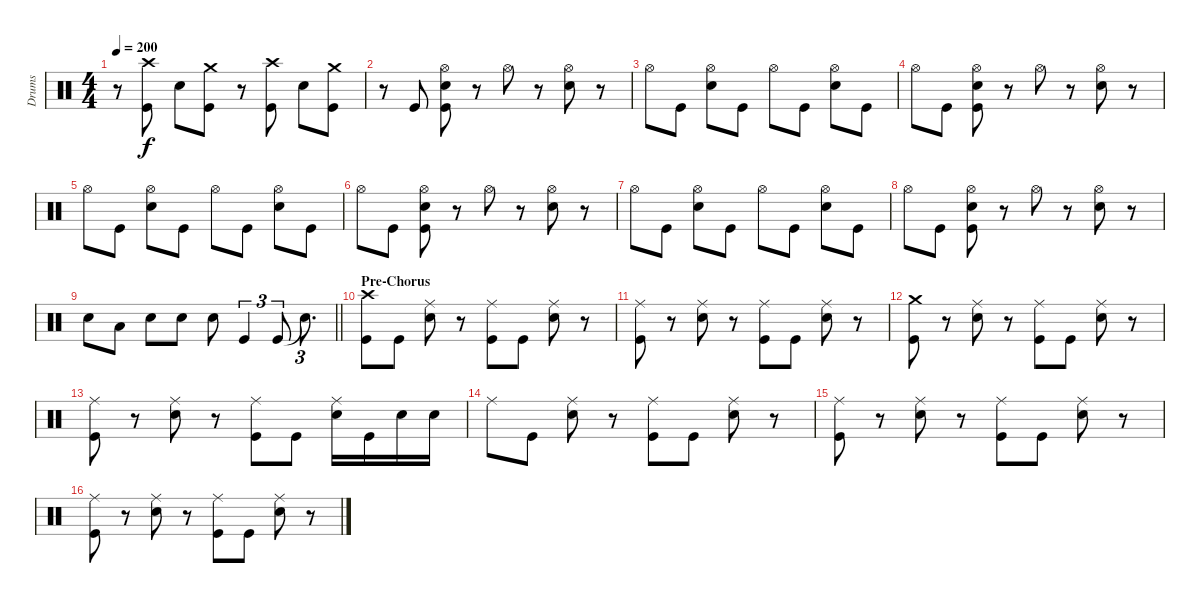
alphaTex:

\track ("Drums" "Drums") {instrument percussion}
\staff {score}
\articulation defaults
\ts (4 4)
\tempo 200
\clef neutral
\ks c
r.8{dy f} ("Crash high (hit)" "Kick (hit)").8 "Electric Snare (hit)".8 ("Crash medium (hit)" "Kick (hit)").8 r.8 ("Crash high (hit)" "Kick (hit)").8 "Electric Snare (hit)".8 ("Crash medium (hit)" "Kick (hit)").8 |
r.8 "Kick (hit)".8 ("Hi-Hat (open)" "Electric Snare (hit)" "Kick (hit)").8 r.8 "Hi-Hat (open)".8 r.8 ("Hi-Hat (open)" "Electric Snare (hit)").8 r.8 |
"Hi-Hat (open)".8 "Kick (hit)".8 ("Hi-Hat (open)" "Electric Snare (hit)").8 "Kick (hit)".8 "Hi-Hat (open)".8 "Kick (hit)".8 ("Hi-Hat (open)" "Electric Snare (hit)").8 "Kick (hit)".8 |
"Hi-Hat (open)".8 "Kick (hit)".8 ("Hi-Hat (open)" "Electric Snare (hit)" "Kick (hit)").8 r.8 "Hi-Hat (open)".8 r.8 ("Hi-Hat (open)" "Electric Snare (hit)").8 r.8 |
"Hi-Hat (open)".8 "Kick (hit)".8 ("Hi-Hat (open)" "Electric Snare (hit)").8 "Kick (hit)".8 "Hi-Hat (open)".8 "Kick (hit)".8 ("Hi-Hat (open)" "Electric Snare (hit)").8 "Kick (hit)".8 |
"Hi-Hat (open)".8 "Kick (hit)".8 ("Hi-Hat (open)" "Electric Snare (hit)" "Kick (hit)").8 r.8 "Hi-Hat (open)".8 r.8 ("Hi-Hat (open)" "Electric Snare (hit)").8 r.8 |
"Hi-Hat (open)".8 "Kick (hit)".8 ("Hi-Hat (open)" "Electric Snare (hit)").8 "Kick (hit)".8 "Hi-Hat (open)".8 "Kick (hit)".8 ("Hi-Hat (open)" "Electric Snare (hit)").8 "Kick (hit)".8 |
"Hi-Hat (open)".8 "Kick (hit)".8 ("Hi-Hat (open)" "Electric Snare (hit)" "Kick (hit)").8 r.8 "Hi-Hat (open)".8 r.8 ("Hi-Hat (open)" "Electric Snare (hit)").8 r.8 |
\barLineRight lightlight "Electric Snare (hit)".8 "Low Floor Tom (hit)".8 "Electric Snare (hit)".8 "Electric Snare (hit)".8 "Electric Snare (hit)".8 "Kick (hit)".4{tu (3 2)} "Kick (hit)".8{tu (3 2)} "Snare (hit)"{t}.8{d tu (3 2)}
|
\section ("" "Pre-Chorus")
("Crash high (hit)" "Kick (hit)").8 "Kick (hit)".8 ("Ride (middle)" "Electric Snare (hit)").8 r.8 ("Ride (middle)" "Kick (hit)").8 "Kick (hit)".8 ("Ride (middle)" "Electric Snare (hit)").8 r.8 |
("Ride (middle)" "Kick (hit)").8 r.8 ("Ride (middle)" "Electric Snare (hit)").8 r.8 ("Ride (middle)" "Kick (hit)").8 "Kick (hit)".8 ("Ride (middle)" "Electric Snare (hit)").8 r.8 |
("Crash medium (hit)" "Kick (hit)").8 r.8 ("Ride (middle)" "Electric Snare (hit)").8 r.8 ("Ride (middle)" "Kick (hit)").8 "Kick (hit)".8 ("Ride (middle)" "Electric Snare (hit)").8 r.8 |
("Ride (middle)" "Kick (hit)").8 r.8 ("Ride (middle)" "Electric Snare (hit)").8 r.8 ("Ride (middle)" "Kick (hit)").8 "Kick (hit)".8 ("Ride (middle)" "Electric Snare (hit)").16 "Kick (hit)".16 "Electric Snare (hit)".16 "Electric Snare (hit)".16 |
"Ride (middle)".8 "Kick (hit)".8 ("Ride (middle)" "Electric Snare (hit)").8 r.8 ("Ride (middle)" "Kick (hit)").8 "Kick (hit)".8 ("Ride (middle)" "Electric Snare (hit)").8 r.8 |
("Ride (middle)" "Kick (hit)").8 r.8 ("Ride (middle)" "Electric Snare (hit)").8 r.8 ("Ride (middle)" "Kick (hit)").8 "Kick (hit)".8 ("Ride (middle)" "Electric Snare (hit)").8 r.8 |
("Ride (middle)" "Kick (hit)").8 r.8 ("Ride (middle)" "Electric Snare (hit)").8 r.8 ("Ride (middle)" "Kick (hit)").8 "Kick (hit)".8 ("Ride (middle)" "Electric Snare (hit)").8 r.8
